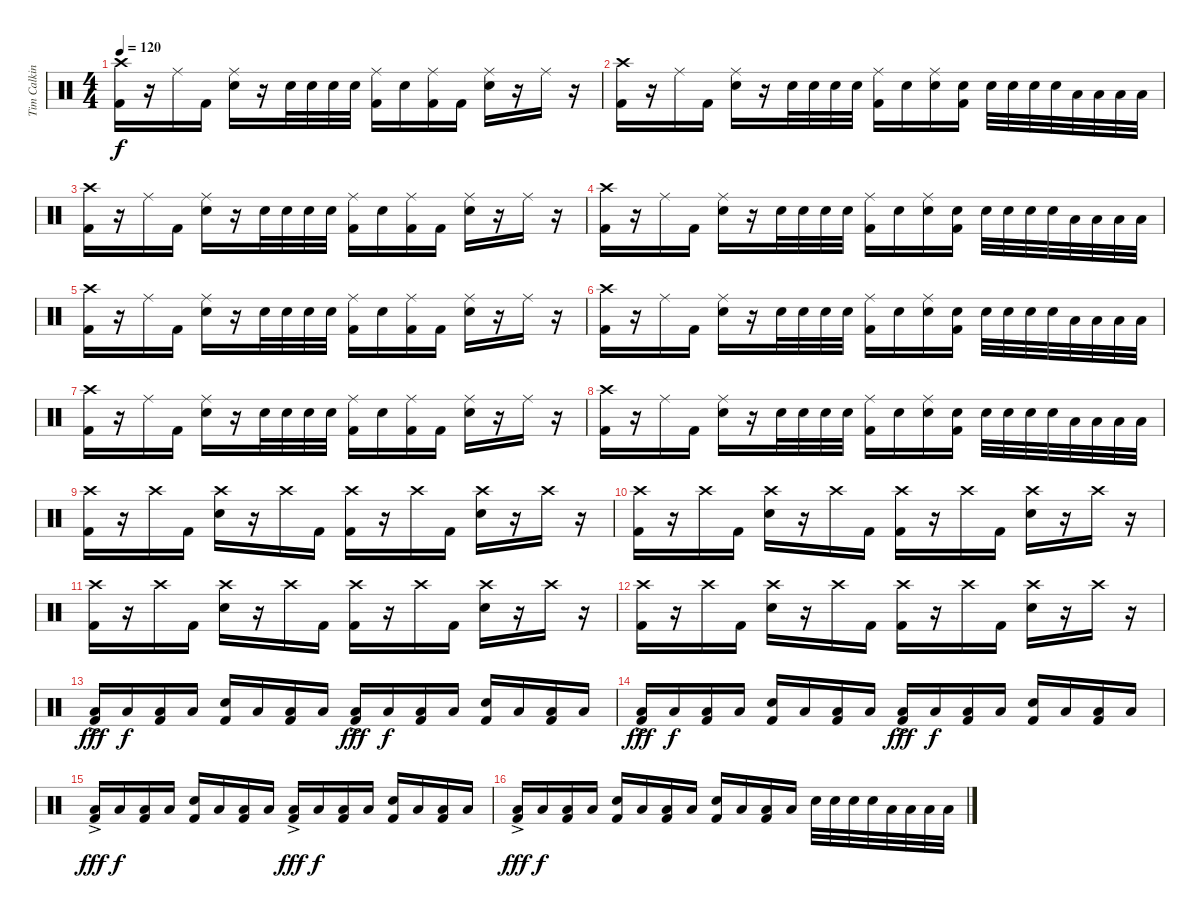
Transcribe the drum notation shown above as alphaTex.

\track ("Tim Calkin" "Tim Calkin") {instrument percussion}
\staff {score}
\articulation defaults
\ts (4 4)
\tempo 120
\clef neutral
\ks c
("Crash high (hit)" "Kick (hit) 2").16{dy f} r.16 "Ride (middle)".16 "Kick (hit) 2".16 ("Ride (middle)" "Snare (hit) 2").16 r.16 "Snare (hit) 2".32 "Snare (hit) 2".32 "Snare (hit) 2".32 "Snare (hit) 2".32 ("Ride (middle)" "Kick (hit) 2").16 "Snare (hit) 2".16 ("Ride (middle)" "Kick (hit) 2").16 "Kick (hit) 2".16 ("Ride (middle)" "Snare (hit) 2").16 r.16 "Ride (middle)".16 r.16 |
("Crash high (hit)" "Kick (hit) 2").16 r.16 "Ride (middle)".16 "Kick (hit) 2".16 ("Ride (middle)" "Snare (hit) 2").16 r.16 "Snare (hit) 2".32 "Snare (hit) 2".32 "Snare (hit) 2".32 "Snare (hit) 2".32 ("Ride (middle)" "Kick (hit) 2").16 "Snare (hit) 2".16 ("Ride (middle)" "Snare (hit) 2").16 ("Snare (hit) 2" "Kick (hit) 2").16 "Snare (hit) 2".32 "Snare (hit) 2".32 "Snare (hit) 2".32 "Snare (hit) 2".32 "Low Tom (hit)".32 "Low Tom (hit)".32 "Low Floor Tom (hit)".32 "Low Floor Tom (hit)".32 |
("Crash high (hit)" "Kick (hit) 2").16 r.16 "Ride (middle)".16 "Kick (hit) 2".16 ("Ride (middle)" "Snare (hit) 2").16 r.16 "Snare (hit) 2".32 "Snare (hit) 2".32 "Snare (hit) 2".32 "Snare (hit) 2".32 ("Ride (middle)" "Kick (hit) 2").16 "Snare (hit) 2".16 ("Ride (middle)" "Kick (hit) 2").16 "Kick (hit) 2".16 ("Ride (middle)" "Snare (hit) 2").16 r.16 "Ride (middle)".16 r.16 |
("Crash high (hit)" "Kick (hit) 2").16 r.16 "Ride (middle)".16 "Kick (hit) 2".16 ("Ride (middle)" "Snare (hit) 2").16 r.16 "Snare (hit) 2".32 "Snare (hit) 2".32 "Snare (hit) 2".32 "Snare (hit) 2".32 ("Ride (middle)" "Kick (hit) 2").16 "Snare (hit) 2".16 ("Ride (middle)" "Snare (hit) 2").16 ("Snare (hit) 2" "Kick (hit) 2").16 "Snare (hit) 2".32 "Snare (hit) 2".32 "Snare (hit) 2".32 "Snare (hit) 2".32 "Low Tom (hit)".32 "Low Tom (hit)".32 "Low Floor Tom (hit)".32 "Low Floor Tom (hit)".32 |
("Crash high (hit)" "Kick (hit) 2").16 r.16 "Ride (middle)".16 "Kick (hit) 2".16 ("Ride (middle)" "Snare (hit) 2").16 r.16 "Snare (hit) 2".32 "Snare (hit) 2".32 "Snare (hit) 2".32 "Snare (hit) 2".32 ("Ride (middle)" "Kick (hit) 2").16 "Snare (hit) 2".16 ("Ride (middle)" "Kick (hit) 2").16 "Kick (hit) 2".16 ("Ride (middle)" "Snare (hit) 2").16 r.16 "Ride (middle)".16 r.16 |
("Crash high (hit)" "Kick (hit) 2").16 r.16 "Ride (middle)".16 "Kick (hit) 2".16 ("Ride (middle)" "Snare (hit) 2").16 r.16 "Snare (hit) 2".32 "Snare (hit) 2".32 "Snare (hit) 2".32 "Snare (hit) 2".32 ("Ride (middle)" "Kick (hit) 2").16 "Snare (hit) 2".16 ("Ride (middle)" "Snare (hit) 2").16 ("Snare (hit) 2" "Kick (hit) 2").16 "Snare (hit) 2".32 "Snare (hit) 2".32 "Snare (hit) 2".32 "Snare (hit) 2".32 "Low Tom (hit)".32 "Low Tom (hit)".32 "Low Floor Tom (hit)".32 "Low Floor Tom (hit)".32 |
("Crash high (hit)" "Kick (hit) 2").16 r.16 "Ride (middle)".16 "Kick (hit) 2".16 ("Ride (middle)" "Snare (hit) 2").16 r.16 "Snare (hit) 2".32 "Snare (hit) 2".32 "Snare (hit) 2".32 "Snare (hit) 2".32 ("Ride (middle)" "Kick (hit) 2").16 "Snare (hit) 2".16 ("Ride (middle)" "Kick (hit) 2").16 "Kick (hit) 2".16 ("Ride (middle)" "Snare (hit) 2").16 r.16 "Ride (middle)".16 r.16 |
("Crash high (hit)" "Kick (hit) 2").16 r.16 "Ride (middle)".16 "Kick (hit) 2".16 ("Ride (middle)" "Snare (hit) 2").16 r.16 "Snare (hit) 2".32 "Snare (hit) 2".32 "Snare (hit) 2".32 "Snare (hit) 2".32 ("Ride (middle)" "Kick (hit) 2").16 "Snare (hit) 2".16 ("Ride (middle)" "Snare (hit) 2").16 ("Snare (hit) 2" "Kick (hit) 2").16 "Snare (hit) 2".32 "Snare (hit) 2".32 "Snare (hit) 2".32 "Snare (hit) 2".32 "Low Tom (hit)".32 "Low Tom (hit)".32 "Low Floor Tom (hit)".32 "Low Floor Tom (hit)".32 |
("Crash high (hit)" "Kick (hit) 2").16 r.16 "Crash high (hit)".16 "Kick (hit) 2".16 ("Crash high (hit)" "Snare (hit) 2").16 r.16 "Crash high (hit)".16 "Kick (hit) 2".16 ("Crash high (hit)" "Kick (hit) 2").16 r.16 "Crash high (hit)".16 "Kick (hit) 2".16 ("Crash high (hit)" "Snare (hit) 2").16 r.16 "Crash high (hit)".16 r.16 |
("Crash high (hit)" "Kick (hit) 2").16 r.16 "Crash high (hit)".16 "Kick (hit) 2".16 ("Crash high (hit)" "Snare (hit) 2").16 r.16 "Crash high (hit)".16 "Kick (hit) 2".16 ("Crash high (hit)" "Kick (hit) 2").16 r.16 "Crash high (hit)".16 "Kick (hit) 2".16 ("Crash high (hit)" "Snare (hit) 2").16 r.16 "Crash high (hit)".16 r.16 |
("Crash high (hit)" "Kick (hit) 2").16 r.16 "Crash high (hit)".16 "Kick (hit) 2".16 ("Crash high (hit)" "Snare (hit) 2").16 r.16 "Crash high (hit)".16 "Kick (hit) 2".16 ("Crash high (hit)" "Kick (hit) 2").16 r.16 "Crash high (hit)".16 "Kick (hit) 2".16 ("Crash high (hit)" "Snare (hit) 2").16 r.16 "Crash high (hit)".16 r.16 |
("Crash high (hit)" "Kick (hit) 2").16 r.16 "Crash high (hit)".16 "Kick (hit) 2".16 ("Crash high (hit)" "Snare (hit) 2").16 r.16 "Crash high (hit)".16 "Kick (hit) 2".16 ("Crash high (hit)" "Kick (hit) 2").16 r.16 "Crash high (hit)".16 "Kick (hit) 2".16 ("Crash high (hit)" "Snare (hit) 2").16 r.16 "Crash high (hit)".16 r.16 |
("Low Floor Tom (hit)"{ac} "Kick (hit) 2").16{dy fff} "Low Tom (hit)".16{dy f} ("Low Floor Tom (hit)" "Kick (hit) 2").16 "Low Tom (hit)".16 ("Snare (hit) 2" "Kick (hit) 2").16 "Low Tom (hit)".16 ("Low Floor Tom (hit)" "Kick (hit) 2").16 "Low Tom (hit)".16 ("Low Floor Tom (hit)"{ac} "Kick (hit) 2").16{dy fff} "Low Tom (hit)".16{dy f} ("Low Floor Tom (hit)" "Kick (hit) 2").16 "Low Tom (hit)".16 ("Snare (hit) 2" "Kick (hit) 2").16 "Low Tom (hit)".16 ("Low Floor Tom (hit)" "Kick (hit) 2").16 "Low Tom (hit)".16 |
("Low Floor Tom (hit)"{ac} "Kick (hit) 2").16{dy fff} "Low Tom (hit)".16{dy f} ("Low Floor Tom (hit)" "Kick (hit) 2").16 "Low Tom (hit)".16 ("Snare (hit) 2" "Kick (hit) 2").16 "Low Tom (hit)".16 ("Low Floor Tom (hit)" "Kick (hit) 2").16 "Low Tom (hit)".16 ("Low Floor Tom (hit)"{ac} "Kick (hit) 2").16{dy fff} "Low Tom (hit)".16{dy f} ("Low Floor Tom (hit)" "Kick (hit) 2").16 "Low Tom (hit)".16 ("Snare (hit) 2" "Kick (hit) 2").16 "Low Tom (hit)".16 ("Low Floor Tom (hit)" "Kick (hit) 2").16 "Low Tom (hit)".16 |
("Low Floor Tom (hit)"{ac} "Kick (hit) 2").16{dy fff} "Low Tom (hit)".16{dy f} ("Low Floor Tom (hit)" "Kick (hit) 2").16 "Low Tom (hit)".16 ("Snare (hit) 2" "Kick (hit) 2").16 "Low Tom (hit)".16 ("Low Floor Tom (hit)" "Kick (hit) 2").16 "Low Tom (hit)".16 ("Low Floor Tom (hit)"{ac} "Kick (hit) 2").16{dy fff} "Low Tom (hit)".16{dy f} ("Low Floor Tom (hit)" "Kick (hit) 2").16 "Low Tom (hit)".16 ("Snare (hit) 2" "Kick (hit) 2").16 "Low Tom (hit)".16 ("Low Floor Tom (hit)" "Kick (hit) 2").16 "Low Tom (hit)".16 |
("Low Floor Tom (hit)"{ac} "Kick (hit) 2").16{dy fff} "Low Tom (hit)".16{dy f} ("Low Floor Tom (hit)" "Kick (hit) 2").16 "Low Tom (hit)".16 ("Snare (hit) 2" "Kick (hit) 2").16 "Low Tom (hit)".16 ("Low Floor Tom (hit)" "Kick (hit) 2").16 "Low Tom (hit)".16 ("Snare (hit) 2" "Kick (hit) 2").16 "Low Tom (hit)".16 ("Low Floor Tom (hit)" "Kick (hit) 2").16 "Low Tom (hit)".16 "Snare (hit) 2".32 "Snare (hit) 2".32 "Snare (hit) 2".32 "Snare (hit) 2".32 "Low Tom (hit)".32 "Low Tom (hit)".32 "Low Floor Tom (hit)".32 "Low Floor Tom (hit)".32
